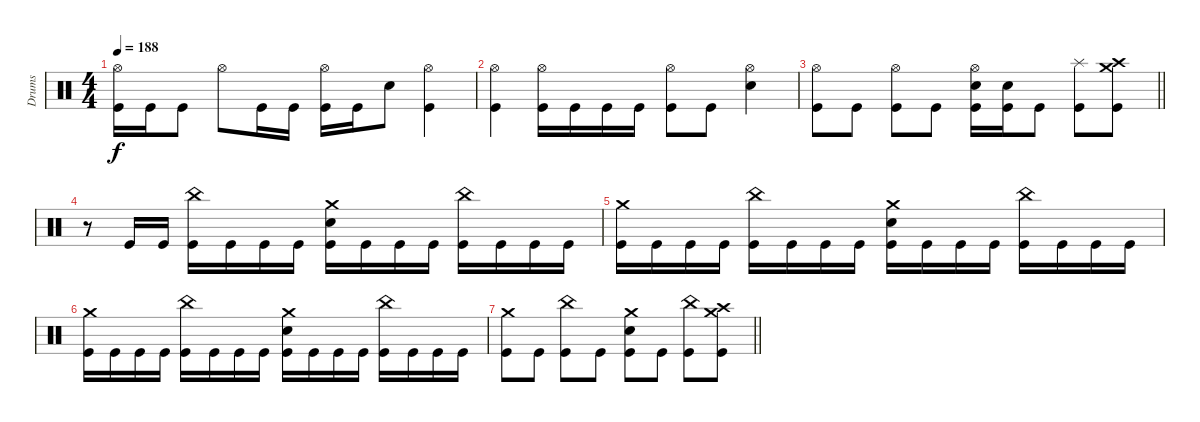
\track ("Drums" "Drums") {instrument percussion}
\staff
\articulation defaults
\ts (4 4)
\tempo 188
\clef neutral
\ks c
("Hi-Hat (open)" "Kick (hit)").16{dy f} "Kick (hit)".16 "Kick (hit)".8 "Hi-Hat (open)".8 "Kick (hit)".16 "Kick (hit)".16 ("Hi-Hat (open)" "Kick (hit)").16 "Kick (hit)".16 "Electric Snare (hit)".8 ("Hi-Hat (open)" "Kick (hit)").4 |
("Hi-Hat (open)" "Kick (hit)").4 ("Hi-Hat (open)" "Kick (hit)").16 "Kick (hit)".16 "Kick (hit)".16 "Kick (hit)".16 ("Hi-Hat (open)" "Kick (hit)").8 "Kick (hit)".8 ("Hi-Hat (open)" "Electric Snare (hit)").4 |
\barLineRight lightlight
("Hi-Hat (open)" "Kick (hit)").8 "Kick (hit)".8 ("Hi-Hat (open)" "Kick (hit)").8 "Kick (hit)".8 ("Hi-Hat (open)" "Electric Snare (hit)" "Kick (hit)").16 ("Electric Snare (hit)" "Kick (hit)").16 "Kick (hit)".8 ("Splash (hit)" "Kick (hit)").8 ("Crash high (hit)" "Crash medium (hit)" "Kick (hit)").8 |
r.8 "Kick (hit)".16 "Kick (hit)".16 ("China (hit)" "Kick (hit)").16 "Kick (hit)".16 "Kick (hit)".16 "Kick (hit)".16 ("Crash medium (hit)" "Electric Snare (hit)" "Kick (hit)").16 "Kick (hit)".16 "Kick (hit)".16 "Kick (hit)".16 ("China (hit)" "Kick (hit)").16 "Kick (hit)".16 "Kick (hit)".16 "Kick (hit)".16 |
("Crash medium (hit)" "Kick (hit)").16 "Kick (hit)".16 "Kick (hit)".16 "Kick (hit)".16 ("China (hit)" "Kick (hit)").16 "Kick (hit)".16 "Kick (hit)".16 "Kick (hit)".16 ("Crash medium (hit)" "Electric Snare (hit)" "Kick (hit)").16 "Kick (hit)".16 "Kick (hit)".16 "Kick (hit)".16 ("China (hit)" "Kick (hit)").16 "Kick (hit)".16 "Kick (hit)".16 "Kick (hit)".16 |
("Crash medium (hit)" "Kick (hit)").16 "Kick (hit)".16 "Kick (hit)".16 "Kick (hit)".16 ("China (hit)" "Kick (hit)").16 "Kick (hit)".16 "Kick (hit)".16 "Kick (hit)".16 ("Crash medium (hit)" "Electric Snare (hit)" "Kick (hit)").16 "Kick (hit)".16 "Kick (hit)".16 "Kick (hit)".16 ("China (hit)" "Kick (hit)").16 "Kick (hit)".16 "Kick (hit)".16 "Kick (hit)".16 |
\barLineRight lightlight
("Crash medium (hit)" "Kick (hit)").8 "Kick (hit)".8 ("China (hit)" "Kick (hit)").8 "Kick (hit)".8 ("Crash medium (hit)" "Electric Snare (hit)" "Kick (hit)").8 "Kick (hit)".8 ("China (hit)" "Kick (hit)").8 ("Crash high (hit)" "Crash medium (hit)" "Kick (hit)").8
